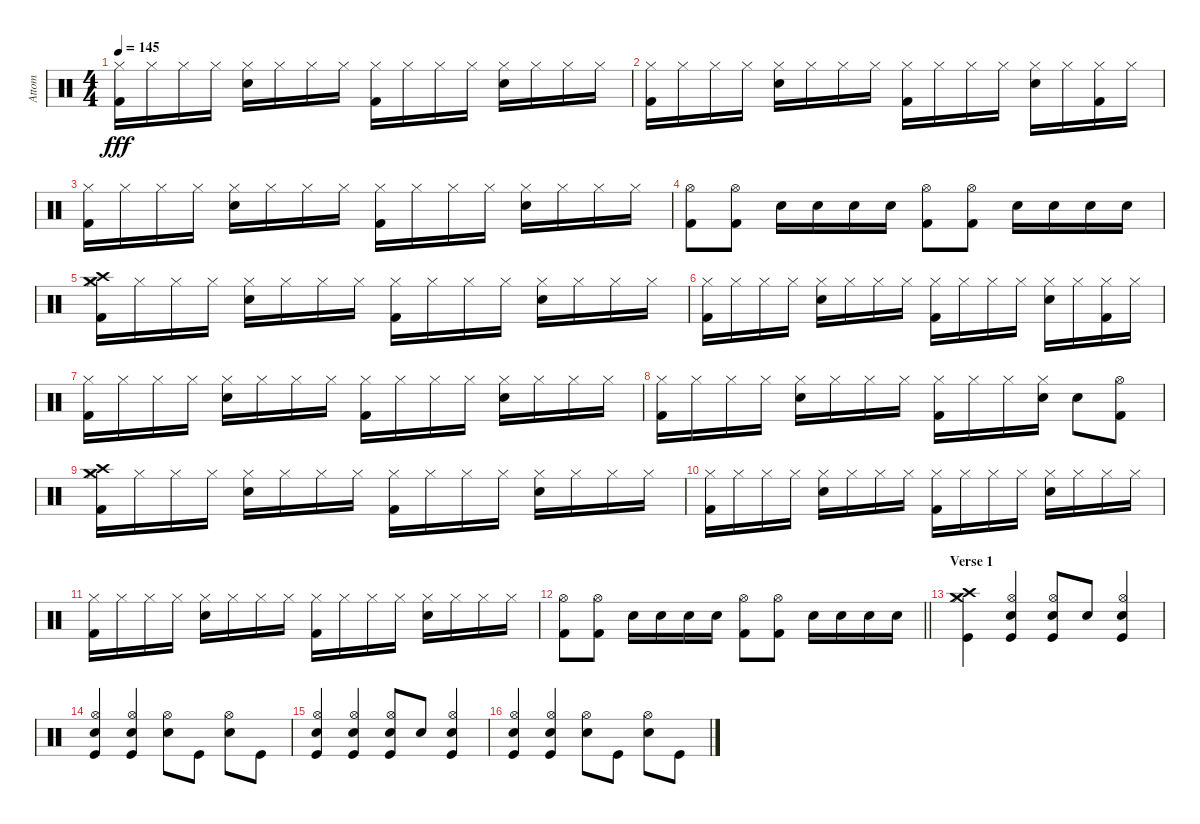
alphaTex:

\track ("Attom" "Attom") {instrument percussion}
\staff {score}
\articulation defaults
\ts (4 4)
\tempo 145
\clef neutral
\ks c
("Hi-Hat (closed)" "Kick (hit) 2").16{dy fff} "Hi-Hat (closed)".16 "Hi-Hat (closed)".16 "Hi-Hat (closed)".16 ("Hi-Hat (closed)" "Snare (hit) 2").16 "Hi-Hat (closed)".16 "Hi-Hat (closed)".16 "Hi-Hat (closed)".16 ("Hi-Hat (closed)" "Kick (hit) 2").16 "Hi-Hat (closed)".16 "Hi-Hat (closed)".16 "Hi-Hat (closed)".16 ("Hi-Hat (closed)" "Snare (hit) 2").16 "Hi-Hat (closed)".16 "Hi-Hat (closed)".16 "Hi-Hat (closed)".16 |
("Hi-Hat (closed)" "Kick (hit) 2").16 "Hi-Hat (closed)".16 "Hi-Hat (closed)".16 "Hi-Hat (closed)".16 ("Hi-Hat (closed)" "Snare (hit) 2").16 "Hi-Hat (closed)".16 "Hi-Hat (closed)".16 "Hi-Hat (closed)".16 ("Hi-Hat (closed)" "Kick (hit) 2").16 "Hi-Hat (closed)".16 "Hi-Hat (closed)".16 "Hi-Hat (closed)".16 ("Hi-Hat (closed)" "Snare (hit) 2").16 "Hi-Hat (closed)".16 ("Hi-Hat (closed)" "Kick (hit) 2").16 "Hi-Hat (closed)".16 |
("Hi-Hat (closed)" "Kick (hit) 2").16 "Hi-Hat (closed)".16 "Hi-Hat (closed)".16 "Hi-Hat (closed)".16 ("Hi-Hat (closed)" "Snare (hit) 2").16 "Hi-Hat (closed)".16 "Hi-Hat (closed)".16 "Hi-Hat (closed)".16 ("Hi-Hat (closed)" "Kick (hit) 2").16 "Hi-Hat (closed)".16 "Hi-Hat (closed)".16 "Hi-Hat (closed)".16 ("Hi-Hat (closed)" "Snare (hit) 2").16 "Hi-Hat (closed)".16 "Hi-Hat (closed)".16 "Hi-Hat (closed)".16 |
("Hi-Hat (open)" "Kick (hit) 2").8 ("Hi-Hat (open)" "Kick (hit) 2").8 "Snare (hit) 2".16 "Snare (hit) 2".16 "Snare (hit) 2".16 "Snare (hit) 2".16 ("Hi-Hat (open)" "Kick (hit) 2").8 ("Hi-Hat (open)" "Kick (hit) 2").8 "Snare (hit) 2".16 "Snare (hit) 2".16 "Snare (hit) 2".16 "Snare (hit) 2".16 |
("Hi-Hat (closed)" "Crash high (hit)" "Crash medium (hit)" "Kick (hit) 2").16 "Hi-Hat (closed)".16 "Hi-Hat (closed)".16 "Hi-Hat (closed)".16 ("Hi-Hat (closed)" "Snare (hit) 2").16 "Hi-Hat (closed)".16 "Hi-Hat (closed)".16 "Hi-Hat (closed)".16 ("Hi-Hat (closed)" "Kick (hit) 2").16 "Hi-Hat (closed)".16 "Hi-Hat (closed)".16 "Hi-Hat (closed)".16 ("Hi-Hat (closed)" "Snare (hit) 2").16 "Hi-Hat (closed)".16 "Hi-Hat (closed)".16 "Hi-Hat (closed)".16 |
("Hi-Hat (closed)" "Kick (hit) 2").16 "Hi-Hat (closed)".16 "Hi-Hat (closed)".16 "Hi-Hat (closed)".16 ("Hi-Hat (closed)" "Snare (hit) 2").16 "Hi-Hat (closed)".16 "Hi-Hat (closed)".16 "Hi-Hat (closed)".16 ("Hi-Hat (closed)" "Kick (hit) 2").16 "Hi-Hat (closed)".16 "Hi-Hat (closed)".16 "Hi-Hat (closed)".16 ("Hi-Hat (closed)" "Snare (hit) 2").16 "Hi-Hat (closed)".16 ("Hi-Hat (closed)" "Kick (hit) 2").16 "Hi-Hat (closed)".16 |
("Hi-Hat (closed)" "Kick (hit) 2").16 "Hi-Hat (closed)".16 "Hi-Hat (closed)".16 "Hi-Hat (closed)".16 ("Hi-Hat (closed)" "Snare (hit) 2").16 "Hi-Hat (closed)".16 "Hi-Hat (closed)".16 "Hi-Hat (closed)".16 ("Hi-Hat (closed)" "Kick (hit) 2").16 "Hi-Hat (closed)".16 "Hi-Hat (closed)".16 "Hi-Hat (closed)".16 ("Hi-Hat (closed)" "Snare (hit) 2").16 "Hi-Hat (closed)".16 "Hi-Hat (closed)".16 "Hi-Hat (closed)".16 |
("Hi-Hat (closed)" "Kick (hit) 2").16 "Hi-Hat (closed)".16 "Hi-Hat (closed)".16 "Hi-Hat (closed)".16 ("Hi-Hat (closed)" "Snare (hit) 2").16 "Hi-Hat (closed)".16 "Hi-Hat (closed)".16 "Hi-Hat (closed)".16 ("Hi-Hat (closed)" "Kick (hit) 2").16 "Hi-Hat (closed)".16 "Hi-Hat (closed)".16 ("Hi-Hat (closed)" "Snare (hit) 2").16 "Snare (hit) 2".8 ("Hi-Hat (open)" "Kick (hit) 2").8 |
("Hi-Hat (closed)" "Crash high (hit)" "Crash medium (hit)" "Kick (hit) 2").16 "Hi-Hat (closed)".16 "Hi-Hat (closed)".16 "Hi-Hat (closed)".16 ("Hi-Hat (closed)" "Snare (hit) 2").16 "Hi-Hat (closed)".16 "Hi-Hat (closed)".16 "Hi-Hat (closed)".16 ("Hi-Hat (closed)" "Kick (hit) 2").16 "Hi-Hat (closed)".16 "Hi-Hat (closed)".16 "Hi-Hat (closed)".16 ("Hi-Hat (closed)" "Snare (hit) 2").16 "Hi-Hat (closed)".16 "Hi-Hat (closed)".16 "Hi-Hat (closed)".16 |
("Hi-Hat (closed)" "Kick (hit) 2").16 "Hi-Hat (closed)".16 "Hi-Hat (closed)".16 "Hi-Hat (closed)".16 ("Hi-Hat (closed)" "Snare (hit) 2").16 "Hi-Hat (closed)".16 "Hi-Hat (closed)".16 "Hi-Hat (closed)".16 ("Hi-Hat (closed)" "Kick (hit) 2").16 "Hi-Hat (closed)".16 "Hi-Hat (closed)".16 "Hi-Hat (closed)".16 ("Hi-Hat (closed)" "Snare (hit) 2").16 "Hi-Hat (closed)".16 "Hi-Hat (closed)".16 "Hi-Hat (closed)".16 |
("Hi-Hat (closed)" "Kick (hit) 2").16 "Hi-Hat (closed)".16 "Hi-Hat (closed)".16 "Hi-Hat (closed)".16 ("Hi-Hat (closed)" "Snare (hit) 2").16 "Hi-Hat (closed)".16 "Hi-Hat (closed)".16 "Hi-Hat (closed)".16 ("Hi-Hat (closed)" "Kick (hit) 2").16 "Hi-Hat (closed)".16 "Hi-Hat (closed)".16 "Hi-Hat (closed)".16 ("Hi-Hat (closed)" "Snare (hit) 2").16 "Hi-Hat (closed)".16 "Hi-Hat (closed)".16 "Hi-Hat (closed)".16 |
\barLineRight lightlight
("Hi-Hat (open)" "Kick (hit) 2").8 ("Hi-Hat (open)" "Kick (hit) 2").8 "Snare (hit) 2".16 "Snare (hit) 2".16 "Snare (hit) 2".16 "Snare (hit) 2".16 ("Hi-Hat (open)" "Kick (hit) 2").8 ("Hi-Hat (open)" "Kick (hit) 2").8 "Snare (hit) 2".16 "Snare (hit) 2".16 "Snare (hit) 2".16 "Snare (hit) 2".16 |
\section ("" "Verse 1")
("Hi-Hat (closed)" "Crash medium (hit)" "Crash high (hit)" "Kick (hit)").4 ("Hi-Hat (open)" "Snare (hit) 2" "Kick (hit)").4 ("Hi-Hat (open)" "Snare (hit) 2" "Kick (hit)").8 "Snare (hit) 2".8 ("Hi-Hat (open)" "Snare (hit) 2" "Kick (hit)").4 |
("Hi-Hat (open)" "Snare (hit) 2" "Kick (hit)").4 ("Hi-Hat (open)" "Snare (hit) 2" "Kick (hit)").4 ("Hi-Hat (open)" "Snare (hit) 2").8 "Kick (hit)".8 ("Hi-Hat (open)" "Snare (hit) 2").8 "Kick (hit)".8 |
("Hi-Hat (open)" "Snare (hit) 2" "Kick (hit)").4 ("Hi-Hat (open)" "Snare (hit) 2" "Kick (hit)").4 ("Hi-Hat (open)" "Snare (hit) 2" "Kick (hit)").8 "Snare (hit) 2".8 ("Hi-Hat (open)" "Snare (hit) 2" "Kick (hit)").4 |
("Hi-Hat (open)" "Snare (hit) 2" "Kick (hit)").4 ("Hi-Hat (open)" "Snare (hit) 2" "Kick (hit)").4 ("Hi-Hat (open)" "Snare (hit) 2").8 "Kick (hit)".8 ("Hi-Hat (open)" "Snare (hit) 2").8 "Kick (hit)".8
